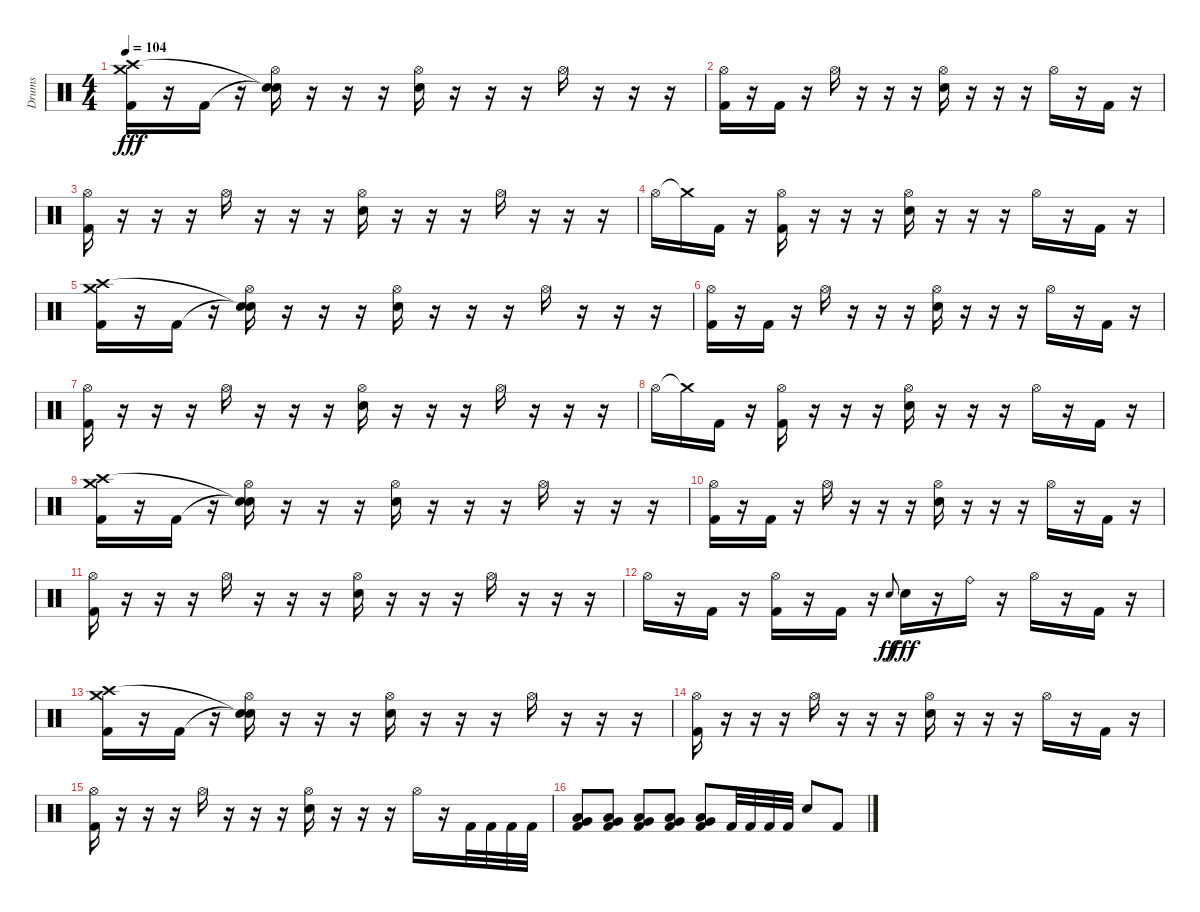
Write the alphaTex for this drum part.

\track ("Drums" "Drums") {instrument percussion}
\staff {score}
\articulation defaults
\ts (4 4)
\tempo 104
\clef neutral
\ks c
("Crash medium (hit)" "Crash high (hit)" "Kick (hit) 2").16{dy fff} r.16 "Kick (hit) 2".16 r.16 ("Snare (hit)"{t} "Snare (hit)"{t} "Hi-Hat (open)").16 r.16 r.16 r.16 ("Hi-Hat (open)" "Electric Snare (hit)").16 r.16 r.16 r.16 "Hi-Hat (open)".16 r.16 r.16 r.16 |
("Hi-Hat (open)" "Kick (hit) 2").16 r.16 "Kick (hit) 2".16 r.16 "Hi-Hat (open)".16 r.16 r.16 r.16 ("Hi-Hat (open)" "Electric Snare (hit)").16 r.16 r.16 r.16 "Hi-Hat (open)".16 r.16 "Kick (hit) 2".16 r.16 |
("Hi-Hat (open)" "Kick (hit) 2").16 r.16 r.16 r.16 "Hi-Hat (open)".16 r.16 r.16 r.16 ("Hi-Hat (open)" "Electric Snare (hit)").16 r.16 r.16 r.16 "Hi-Hat (open)".16 r.16 r.16 r.16 |
"Hi-Hat (open)".16 "Crash medium (hit)"{t}.16 "Kick (hit) 2".16 r.16 ("Hi-Hat (open)" "Kick (hit) 2").16 r.16 r.16 r.16 ("Hi-Hat (open)" "Electric Snare (hit)").16 r.16 r.16 r.16 "Hi-Hat (open)".16 r.16 "Kick (hit) 2".16 r.16 |
("Crash medium (hit)" "Crash high (hit)" "Kick (hit) 2").16 r.16 "Kick (hit) 2".16 r.16 ("Snare (hit)"{t} "Snare (hit)"{t} "Hi-Hat (open)").16 r.16 r.16 r.16 ("Hi-Hat (open)" "Electric Snare (hit)").16 r.16 r.16 r.16 "Hi-Hat (open)".16 r.16 r.16 r.16 |
("Hi-Hat (open)" "Kick (hit) 2").16 r.16 "Kick (hit) 2".16 r.16 "Hi-Hat (open)".16 r.16 r.16 r.16 ("Hi-Hat (open)" "Electric Snare (hit)").16 r.16 r.16 r.16 "Hi-Hat (open)".16 r.16 "Kick (hit) 2".16 r.16 |
("Hi-Hat (open)" "Kick (hit) 2").16 r.16 r.16 r.16 "Hi-Hat (open)".16 r.16 r.16 r.16 ("Hi-Hat (open)" "Electric Snare (hit)").16 r.16 r.16 r.16 "Hi-Hat (open)".16 r.16 r.16 r.16 |
"Hi-Hat (open)".16 "Crash medium (hit)"{t}.16 "Kick (hit) 2".16 r.16 ("Hi-Hat (open)" "Kick (hit) 2").16 r.16 r.16 r.16 ("Hi-Hat (open)" "Electric Snare (hit)").16 r.16 r.16 r.16 "Hi-Hat (open)".16 r.16 "Kick (hit) 2".16 r.16 |
("Crash medium (hit)" "Crash high (hit)" "Kick (hit) 2").16 r.16 "Kick (hit) 2".16 r.16 ("Snare (hit)"{t} "Snare (hit)"{t} "Hi-Hat (open)").16 r.16 r.16 r.16 ("Hi-Hat (open)" "Electric Snare (hit)").16 r.16 r.16 r.16 "Hi-Hat (open)".16 r.16 r.16 r.16 |
("Hi-Hat (open)" "Kick (hit) 2").16 r.16 "Kick (hit) 2".16 r.16 "Hi-Hat (open)".16 r.16 r.16 r.16 ("Hi-Hat (open)" "Electric Snare (hit)").16 r.16 r.16 r.16 "Hi-Hat (open)".16 r.16 "Kick (hit) 2".16 r.16 |
("Hi-Hat (open)" "Kick (hit) 2").16 r.16 r.16 r.16 "Hi-Hat (open)".16 r.16 r.16 r.16 ("Hi-Hat (open)" "Electric Snare (hit)").16 r.16 r.16 r.16 "Hi-Hat (open)".16 r.16 r.16 r.16 |
"Hi-Hat (open)".16 r.16 "Kick (hit) 2".16 r.16 ("Hi-Hat (open)" "Kick (hit) 2").16 r.16 "Kick (hit) 2".16 r.16 "Electric Snare (hit)"{h}.8{gr onbeat dy ff} "Electric Snare (hit)".16{dy fff} r.16 "Ride (bell)".16 r.16 "Hi-Hat (open)".16 r.16 "Kick (hit) 2".16 r.16 |
("Crash medium (hit)" "Crash high (hit)" "Kick (hit) 2").16 r.16 "Kick (hit) 2".16 r.16 ("Snare (hit)"{t} "Snare (hit)"{t} "Hi-Hat (open)").16 r.16 r.16 r.16 ("Hi-Hat (open)" "Electric Snare (hit)").16 r.16 r.16 r.16 "Hi-Hat (open)".16 r.16 r.16 r.16 |
("Hi-Hat (open)" "Kick (hit) 2").16 r.16 r.16 r.16 "Hi-Hat (open)".16 r.16 r.16 r.16 ("Hi-Hat (open)" "Electric Snare (hit)").16 r.16 r.16 r.16 "Hi-Hat (open)".16 r.16 "Kick (hit) 2".16 r.16 |
("Hi-Hat (open)" "Kick (hit) 2").16 r.16 r.16 r.16 "Hi-Hat (open)".16 r.16 r.16 r.16 ("Hi-Hat (open)" "Electric Snare (hit)").16 r.16 r.16 r.16 "Hi-Hat (open)".16 r.16 "Kick (hit) 2".32 "Kick (hit) 2".32 "Kick (hit) 2".32 "Kick (hit) 2".32 |
("Very Low Tom (hit)" "Low Floor Tom (hit)" "Kick (hit) 2").8 ("Very Low Tom (hit)" "Low Floor Tom (hit)" "Kick (hit) 2").8 ("Very Low Tom (hit)" "Low Floor Tom (hit)" "Kick (hit) 2").8 ("Very Low Tom (hit)" "Low Floor Tom (hit)" "Kick (hit) 2").8 ("Very Low Tom (hit)" "Low Floor Tom (hit)" "Kick (hit) 2").8 "Kick (hit) 2".32 "Kick (hit) 2".32 "Kick (hit) 2".32 "Kick (hit) 2".32 "Electric Snare (hit)".8 "Kick (hit) 2".8
